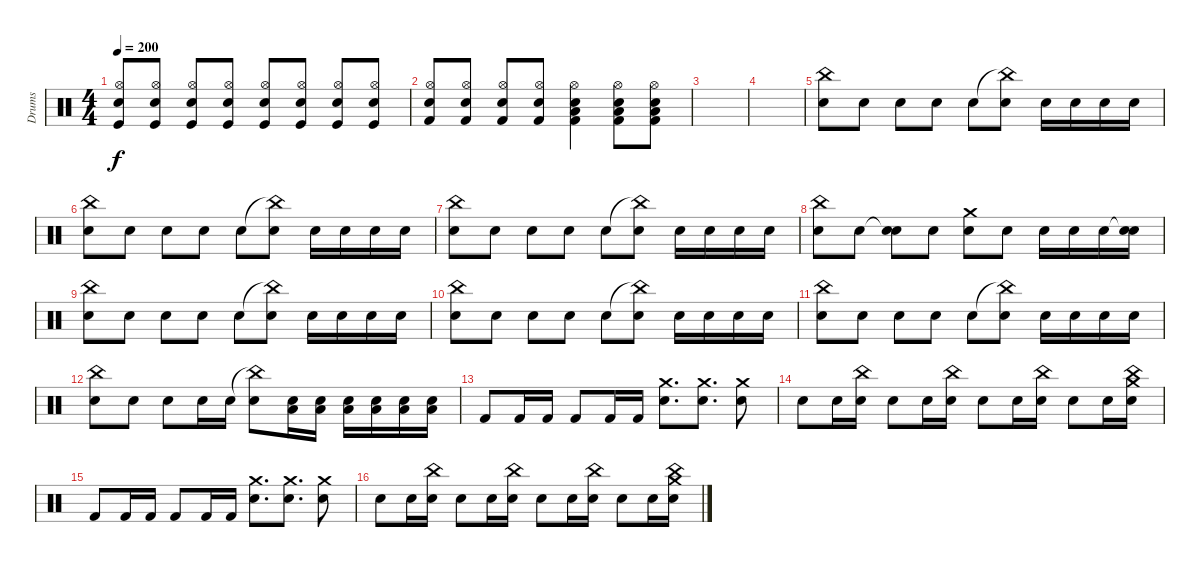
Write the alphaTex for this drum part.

\track ("Drums" "Drums") {instrument percussion}
\staff {score}
\articulation defaults
\ts (4 4)
\tempo 200
\clef neutral
\ks c
("Electric Snare (hit)" "Hi-Hat (open)" "Kick (hit)").8{dy f} ("Electric Snare (hit)" "Hi-Hat (open)" "Kick (hit)").8 ("Electric Snare (hit)" "Hi-Hat (open)" "Kick (hit)").8 ("Electric Snare (hit)" "Hi-Hat (open)" "Kick (hit)").8 ("Electric Snare (hit)" "Hi-Hat (open)" "Kick (hit)").8 ("Electric Snare (hit)" "Hi-Hat (open)" "Kick (hit)").8 ("Electric Snare (hit)" "Hi-Hat (open)" "Kick (hit)").8 ("Electric Snare (hit)" "Hi-Hat (open)" "Kick (hit)").8 |
("Electric Snare (hit)" "Hi-Hat (open)" "Kick (hit) 2").8 ("Electric Snare (hit)" "Hi-Hat (open)" "Kick (hit) 2").8 ("Electric Snare (hit)" "Hi-Hat (open)" "Kick (hit) 2").8 ("Electric Snare (hit)" "Hi-Hat (open)" "Kick (hit) 2").8 ("Electric Snare (hit)" "Low Floor Tom (hit)" "Hi-Hat (open)" "Kick (hit) 2").4 ("Electric Snare (hit)" "Low Floor Tom (hit)" "Hi-Hat (open)" "Kick (hit) 2").8 ("Electric Snare (hit)" "Low Floor Tom (hit)" "Hi-Hat (open)" "Kick (hit) 2").8 |
|
|
("China (hit)" "Snare (hit) 2").8 "Snare (hit) 2".8 "Snare (hit) 2".8 "Snare (hit) 2".8 "Snare (hit) 2".8 ("China (hit)"{t} "Snare (hit) 2").8 "Snare (hit) 2".16 "Snare (hit) 2".16 "Snare (hit) 2".16 "Snare (hit) 2".16 |
("China (hit)" "Snare (hit) 2").8 "Snare (hit) 2".8 "Snare (hit) 2".8 "Snare (hit) 2".8 "Snare (hit) 2".8 ("China (hit)"{t} "Snare (hit) 2").8 "Snare (hit) 2".16 "Snare (hit) 2".16 "Snare (hit) 2".16 "Snare (hit) 2".16 |
("China (hit)" "Snare (hit) 2").8 "Snare (hit) 2".8 "Snare (hit) 2".8 "Snare (hit) 2".8 "Snare (hit) 2".8 ("China (hit)"{t} "Snare (hit) 2").8 "Snare (hit) 2".16 "Snare (hit) 2".16 "Snare (hit) 2".16 "Snare (hit) 2".16 |
("China (hit)" "Snare (hit) 2").8 "Snare (hit) 2".8 ("Snare (hit)"{t} "Snare (hit) 2").8 "Snare (hit) 2".8 ("Crash medium (hit)" "Snare (hit) 2").8 "Snare (hit) 2".8 "Snare (hit) 2".16 "Snare (hit) 2".16 "Snare (hit) 2".16 ("Snare (hit)"{t} "Snare (hit) 2").16 |
("China (hit)" "Snare (hit) 2").8 "Snare (hit) 2".8 "Snare (hit) 2".8 "Snare (hit) 2".8 "Snare (hit) 2".8 ("China (hit)"{t} "Snare (hit) 2").8 "Snare (hit) 2".16 "Snare (hit) 2".16 "Snare (hit) 2".16 "Snare (hit) 2".16 |
("China (hit)" "Snare (hit) 2").8 "Snare (hit) 2".8 "Snare (hit) 2".8 "Snare (hit) 2".8 "Snare (hit) 2".8 ("China (hit)"{t} "Snare (hit) 2").8 "Snare (hit) 2".16 "Snare (hit) 2".16 "Snare (hit) 2".16 "Snare (hit) 2".16 |
("China (hit)" "Snare (hit) 2").8 "Snare (hit) 2".8 "Snare (hit) 2".8 "Snare (hit) 2".8 "Snare (hit) 2".8 ("China (hit)"{t} "Snare (hit) 2").8 "Snare (hit) 2".16 "Snare (hit) 2".16 "Snare (hit) 2".16 "Snare (hit) 2".16 |
("China (hit)" "Snare (hit) 2").8 "Snare (hit) 2".8 "Snare (hit) 2".8 "Snare (hit) 2".16 "Snare (hit) 2".16 ("China (hit)"{t} "Snare (hit) 2").8 ("Low Floor Tom (hit)" "Electric Snare (hit)").16 ("Low Floor Tom (hit)" "Electric Snare (hit)").16 ("Low Floor Tom (hit)" "Electric Snare (hit)").16 ("Low Floor Tom (hit)" "Electric Snare (hit)").16 ("Low Floor Tom (hit)" "Electric Snare (hit)").16 ("Low Floor Tom (hit)" "Electric Snare (hit)").16 |
"Kick (hit) 2".8 "Kick (hit) 2".16 "Kick (hit) 2".16 "Kick (hit) 2".8 "Kick (hit) 2".16 "Kick (hit) 2".16 ("Snare (hit) 2" "Crash medium (hit)").8{d} ("Snare (hit) 2" "Crash medium (hit)").8{d} ("Snare (hit) 2" "Crash medium (hit)").8 |
"Snare (hit) 2".8 "Snare (hit) 2".16 ("Snare (hit) 2" "China (hit)").16 "Snare (hit) 2".8 "Snare (hit) 2".16 ("Snare (hit) 2" "China (hit)").16 "Snare (hit) 2".8 "Snare (hit) 2".16 ("Snare (hit) 2" "China (hit)").16 "Snare (hit) 2".8 "Snare (hit) 2".16 ("Snare (hit) 2" "Crash medium (hit)" "China (hit)").16 |
"Kick (hit) 2".8 "Kick (hit) 2".16 "Kick (hit) 2".16 "Kick (hit) 2".8 "Kick (hit) 2".16 "Kick (hit) 2".16 ("Snare (hit) 2" "Crash medium (hit)").8{d} ("Snare (hit) 2" "Crash medium (hit)").8{d} ("Snare (hit) 2" "Crash medium (hit)").8 |
"Snare (hit) 2".8 "Snare (hit) 2".16 ("Snare (hit) 2" "China (hit)").16 "Snare (hit) 2".8 "Snare (hit) 2".16 ("Snare (hit) 2" "China (hit)").16 "Snare (hit) 2".8 "Snare (hit) 2".16 ("Snare (hit) 2" "China (hit)").16 "Snare (hit) 2".8 "Snare (hit) 2".16 ("Snare (hit) 2" "Crash medium (hit)" "China (hit)").16
